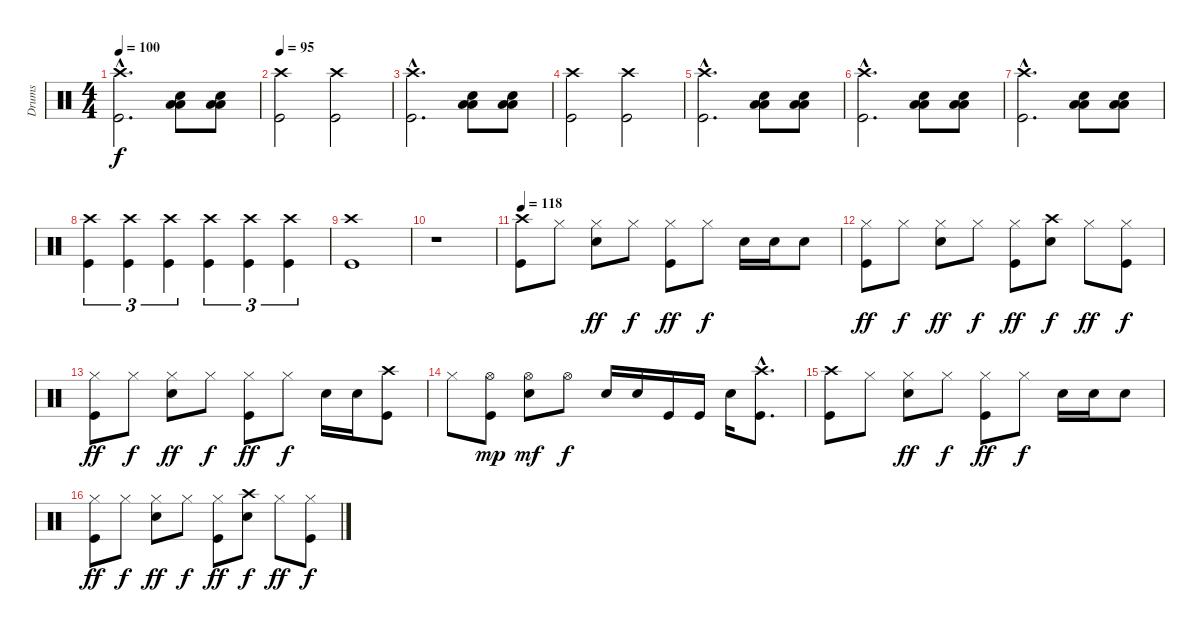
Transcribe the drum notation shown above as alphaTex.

\track ("Drums" "Drums") {instrument percussion}
\staff {score}
\articulation defaults
\ts (4 4)
\tempo 100
\clef neutral
\ks c
("Crash high (hit)"{hac} "Kick (hit)"{hac}).2{d dy f} ("Snare (hit) 2" "Low Floor Tom (hit)" "Low Tom (hit)").8 ("Snare (hit) 2" "Low Floor Tom (hit)" "Low Tom (hit)").8 |
\tempo 95
("Crash high (hit)" "Kick (hit)").2 ("Crash high (hit)" "Kick (hit)").2 |
("Crash high (hit)"{hac} "Kick (hit)"{hac}).2{d} ("Snare (hit) 2" "Low Floor Tom (hit)" "Low Tom (hit)").8 ("Snare (hit) 2" "Low Floor Tom (hit)" "Low Tom (hit)").8 |
("Crash high (hit)" "Kick (hit)").2 ("Crash high (hit)" "Kick (hit)").2 |
("Crash high (hit)"{hac} "Kick (hit)"{hac}).2{d} ("Snare (hit) 2" "Low Floor Tom (hit)" "Low Tom (hit)").8 ("Snare (hit) 2" "Low Floor Tom (hit)" "Low Tom (hit)").8 |
("Crash high (hit)"{hac} "Kick (hit)"{hac}).2{d} ("Snare (hit) 2" "Low Floor Tom (hit)" "Low Tom (hit)").8 ("Snare (hit) 2" "Low Floor Tom (hit)" "Low Tom (hit)").8 |
("Crash high (hit)"{hac} "Kick (hit)"{hac}).2{d} ("Snare (hit) 2" "Low Floor Tom (hit)" "Low Tom (hit)").8 ("Snare (hit) 2" "Low Floor Tom (hit)" "Low Tom (hit)").8 |
("Crash high (hit)" "Kick (hit)").4{tu (3 2)} ("Crash high (hit)" "Kick (hit)").4{tu (3 2)} ("Crash high (hit)" "Kick (hit)").4{tu (3 2)} ("Crash high (hit)" "Kick (hit)").4{tu (3 2)} ("Crash high (hit)" "Kick (hit)").4{tu (3 2)} ("Crash high (hit)" "Kick (hit)").4{tu (3 2)} |
("Crash high (hit)" "Kick (hit)").1 |
r.1 |
\tempo 118
("Crash high (hit)" "Kick (hit)").8 "Hi-Hat (closed)".8 ("Hi-Hat (closed)" "Snare (hit) 2").8{dy ff} "Hi-Hat (closed)".8{dy f} ("Hi-Hat (closed)" "Kick (hit)").8{dy ff} "Hi-Hat (closed)".8{dy f} "Snare (hit) 2".16 "Snare (hit) 2".16 "Snare (hit) 2".8 |
("Hi-Hat (closed)" "Kick (hit)").8{dy ff} "Hi-Hat (closed)".8{dy f} ("Hi-Hat (closed)" "Snare (hit) 2").8{dy ff} "Hi-Hat (closed)".8{dy f} ("Hi-Hat (closed)" "Kick (hit)").8{dy ff} ("Crash high (hit)" "Snare (hit) 2").8{dy f} "Hi-Hat (closed)".8{dy ff} ("Hi-Hat (closed)" "Kick (hit)").8{dy f} |
("Hi-Hat (closed)" "Kick (hit)").8{dy ff} "Hi-Hat (closed)".8{dy f} ("Hi-Hat (closed)" "Snare (hit) 2").8{dy ff} "Hi-Hat (closed)".8{dy f} ("Hi-Hat (closed)" "Kick (hit)").8{dy ff} "Hi-Hat (closed)".8{dy f} "Snare (hit) 2".16 "Snare (hit) 2".16 ("Crash high (hit)" "Kick (hit)").8 |
"Hi-Hat (closed)".8 ("Hi-Hat (open)" "Kick (hit)").8{dy mp} ("Hi-Hat (open)" "Snare (hit) 2").8{dy mf} "Hi-Hat (open)".8{dy f} "Snare (hit) 2".16 "Snare (hit) 2".16 "Kick (hit)".16 "Kick (hit)".16 "Snare (hit) 2".16 ("Crash high (hit)"{hac} "Kick (hit)"{hac}).8{d} |
("Crash high (hit)" "Kick (hit)").8 "Hi-Hat (closed)".8 ("Hi-Hat (closed)" "Snare (hit) 2").8{dy ff} "Hi-Hat (closed)".8{dy f} ("Hi-Hat (closed)" "Kick (hit)").8{dy ff} "Hi-Hat (closed)".8{dy f} "Snare (hit) 2".16 "Snare (hit) 2".16 "Snare (hit) 2".8 |
("Hi-Hat (closed)" "Kick (hit)").8{dy ff} "Hi-Hat (closed)".8{dy f} ("Hi-Hat (closed)" "Snare (hit) 2").8{dy ff} "Hi-Hat (closed)".8{dy f} ("Hi-Hat (closed)" "Kick (hit)").8{dy ff} ("Crash high (hit)" "Snare (hit) 2").8{dy f} "Hi-Hat (closed)".8{dy ff} ("Hi-Hat (closed)" "Kick (hit)").8{dy f}
